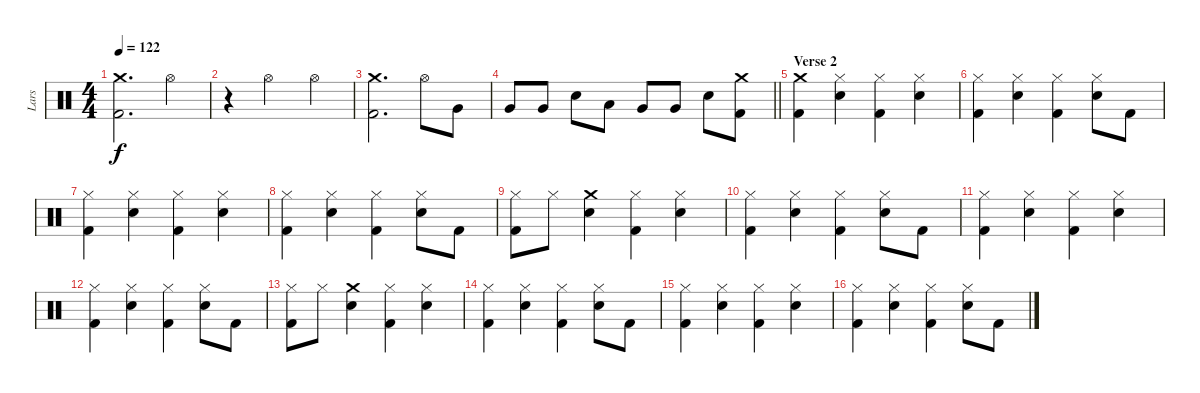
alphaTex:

\track ("Lars" "Lars") {instrument percussion}
\staff {score}
\articulation defaults
\ts (4 4)
\tempo 122
\clef neutral
\ks c
("Crash medium (hit)" "Kick (hit) 2").2{d dy f} "Hi-Hat (open)".4 |
r.4 "Hi-Hat (open)".2 "Hi-Hat (open)".4 |
("Crash medium (hit)" "Kick (hit) 2").2{d} "Hi-Hat (open)".8 "Very Low Tom (hit)".8 |
\barLineRight lightlight "Very Low Tom (hit)".8 "Very Low Tom (hit)".8 "Snare (hit) 2".8 "Low Tom (hit)".8 "Very Low Tom (hit)".8 "Very Low Tom (hit)".8 "Snare (hit) 2".8
("Crash medium (hit)" "Kick (hit) 2").8 |
\section ("" "Verse 2")
("Crash medium (hit)" "Kick (hit) 2").4 ("Hi-Hat (closed)" "Snare (hit) 2").4 ("Hi-Hat (closed)" "Kick (hit) 2").4 ("Hi-Hat (closed)" "Snare (hit) 2").4 |
("Hi-Hat (closed)" "Kick (hit) 2").4 ("Hi-Hat (closed)" "Snare (hit) 2").4 ("Hi-Hat (closed)" "Kick (hit) 2").4 ("Hi-Hat (closed)" "Snare (hit) 2").8 "Kick (hit) 2".8 |
("Hi-Hat (closed)" "Kick (hit) 2").4 ("Hi-Hat (closed)" "Snare (hit) 2").4 ("Hi-Hat (closed)" "Kick (hit) 2").4 ("Hi-Hat (closed)" "Snare (hit) 2").4 |
("Hi-Hat (closed)" "Kick (hit) 2").4 ("Hi-Hat (closed)" "Snare (hit) 2").4 ("Hi-Hat (closed)" "Kick (hit) 2").4 ("Hi-Hat (closed)" "Snare (hit) 2").8 "Kick (hit) 2".8 |
("Hi-Hat (closed)" "Kick (hit) 2").8 "Hi-Hat (closed)".8 ("Crash medium (hit)" "Snare (hit) 2").4 ("Hi-Hat (closed)" "Kick (hit) 2").4 ("Hi-Hat (closed)" "Snare (hit) 2").4 |
("Hi-Hat (closed)" "Kick (hit) 2").4 ("Hi-Hat (closed)" "Snare (hit) 2").4 ("Hi-Hat (closed)" "Kick (hit) 2").4 ("Hi-Hat (closed)" "Snare (hit) 2").8 "Kick (hit) 2".8 |
("Hi-Hat (closed)" "Kick (hit) 2").4 ("Hi-Hat (closed)" "Snare (hit) 2").4 ("Hi-Hat (closed)" "Kick (hit) 2").4 ("Hi-Hat (closed)" "Snare (hit) 2").4 |
("Hi-Hat (closed)" "Kick (hit) 2").4 ("Hi-Hat (closed)" "Snare (hit) 2").4 ("Hi-Hat (closed)" "Kick (hit) 2").4 ("Hi-Hat (closed)" "Snare (hit) 2").8 "Kick (hit) 2".8 |
("Hi-Hat (closed)" "Kick (hit) 2").8 "Hi-Hat (closed)".8 ("Crash medium (hit)" "Snare (hit) 2").4 ("Hi-Hat (closed)" "Kick (hit) 2").4 ("Hi-Hat (closed)" "Snare (hit) 2").4 |
("Hi-Hat (closed)" "Kick (hit) 2").4 ("Hi-Hat (closed)" "Snare (hit) 2").4 ("Hi-Hat (closed)" "Kick (hit) 2").4 ("Hi-Hat (closed)" "Snare (hit) 2").8 "Kick (hit) 2".8 |
("Hi-Hat (closed)" "Kick (hit) 2").4 ("Hi-Hat (closed)" "Snare (hit) 2").4 ("Hi-Hat (closed)" "Kick (hit) 2").4 ("Hi-Hat (closed)" "Snare (hit) 2").4 |
("Hi-Hat (closed)" "Kick (hit) 2").4 ("Hi-Hat (closed)" "Snare (hit) 2").4 ("Hi-Hat (closed)" "Kick (hit) 2").4 ("Hi-Hat (closed)" "Snare (hit) 2").8 "Kick (hit) 2".8
